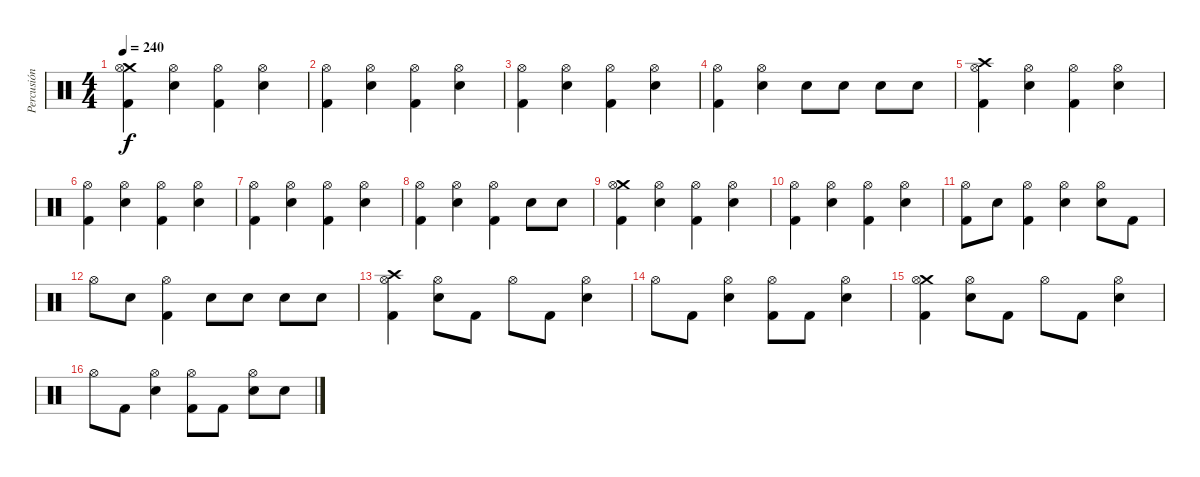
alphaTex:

\track ("Percusión" "Percusión") {instrument percussion}
\staff {score}
\articulation defaults
\ts (4 4)
\tempo 240
\clef neutral
\ks c
("Crash medium (hit)" "Hi-Hat (open)" "Kick (hit) 2").4{dy f} ("Hi-Hat (open)" "Snare (hit) 2").4 ("Hi-Hat (open)" "Kick (hit) 2").4 ("Hi-Hat (open)" "Snare (hit) 2").4 |
("Hi-Hat (open)" "Kick (hit) 2").4 ("Hi-Hat (open)" "Snare (hit) 2").4 ("Hi-Hat (open)" "Kick (hit) 2").4 ("Hi-Hat (open)" "Snare (hit) 2").4 |
("Hi-Hat (open)" "Kick (hit) 2").4 ("Hi-Hat (open)" "Snare (hit) 2").4 ("Hi-Hat (open)" "Kick (hit) 2").4 ("Hi-Hat (open)" "Snare (hit) 2").4 |
("Hi-Hat (open)" "Kick (hit) 2").4 ("Hi-Hat (open)" "Snare (hit) 2").4 "Snare (hit) 2".8 "Snare (hit) 2".8 "Snare (hit) 2".8 "Snare (hit) 2".8 |
("Crash high (hit)" "Hi-Hat (open)" "Kick (hit) 2").4 ("Hi-Hat (open)" "Snare (hit) 2").4 ("Hi-Hat (open)" "Kick (hit) 2").4 ("Hi-Hat (open)" "Snare (hit) 2").4 |
("Hi-Hat (open)" "Kick (hit) 2").4 ("Hi-Hat (open)" "Snare (hit) 2").4 ("Hi-Hat (open)" "Kick (hit) 2").4 ("Hi-Hat (open)" "Snare (hit) 2").4 |
("Hi-Hat (open)" "Kick (hit) 2").4 ("Hi-Hat (open)" "Snare (hit) 2").4 ("Hi-Hat (open)" "Kick (hit) 2").4 ("Hi-Hat (open)" "Snare (hit) 2").4 |
("Hi-Hat (open)" "Kick (hit) 2").4 ("Hi-Hat (open)" "Snare (hit) 2").4 ("Hi-Hat (open)" "Kick (hit) 2").4 "Snare (hit) 2".8 "Snare (hit) 2".8 |
("Crash medium (hit)" "Hi-Hat (open)" "Kick (hit) 2").4 ("Hi-Hat (open)" "Snare (hit) 2").4 ("Hi-Hat (open)" "Kick (hit) 2").4 ("Hi-Hat (open)" "Snare (hit) 2").4 |
("Hi-Hat (open)" "Kick (hit) 2").4 ("Hi-Hat (open)" "Snare (hit) 2").4 ("Hi-Hat (open)" "Kick (hit) 2").4 ("Hi-Hat (open)" "Snare (hit) 2").4 |
("Hi-Hat (open)" "Kick (hit) 2").8 "Snare (hit) 2".8 ("Hi-Hat (open)" "Kick (hit) 2").4 ("Hi-Hat (open)" "Snare (hit) 2").4 ("Hi-Hat (open)" "Snare (hit) 2").8 "Kick (hit) 2".8 |
"Hi-Hat (open)".8 "Snare (hit) 2".8 ("Hi-Hat (open)" "Kick (hit) 2").4 "Snare (hit) 2".8 "Snare (hit) 2".8 "Snare (hit) 2".8 "Snare (hit) 2".8 |
("Crash high (hit)" "Hi-Hat (open)" "Kick (hit) 2").4 ("Hi-Hat (open)" "Snare (hit) 2").8 "Kick (hit) 2".8 "Hi-Hat (open)".8 "Kick (hit) 2".8 ("Hi-Hat (open)" "Snare (hit) 2").4 |
"Hi-Hat (open)".8 "Kick (hit) 2".8 ("Hi-Hat (open)" "Snare (hit) 2").4 ("Hi-Hat (open)" "Kick (hit) 2").8 "Kick (hit) 2".8 ("Hi-Hat (open)" "Snare (hit) 2").4 |
("Crash medium (hit)" "Hi-Hat (open)" "Kick (hit) 2").4 ("Hi-Hat (open)" "Snare (hit) 2").8 "Kick (hit) 2".8 "Hi-Hat (open)".8 "Kick (hit) 2".8 ("Hi-Hat (open)" "Snare (hit) 2").4 |
"Hi-Hat (open)".8 "Kick (hit) 2".8 ("Hi-Hat (open)" "Snare (hit) 2").4 ("Hi-Hat (open)" "Kick (hit) 2").8 "Kick (hit) 2".8 ("Hi-Hat (open)" "Snare (hit) 2").8 "Snare (hit) 2".8
